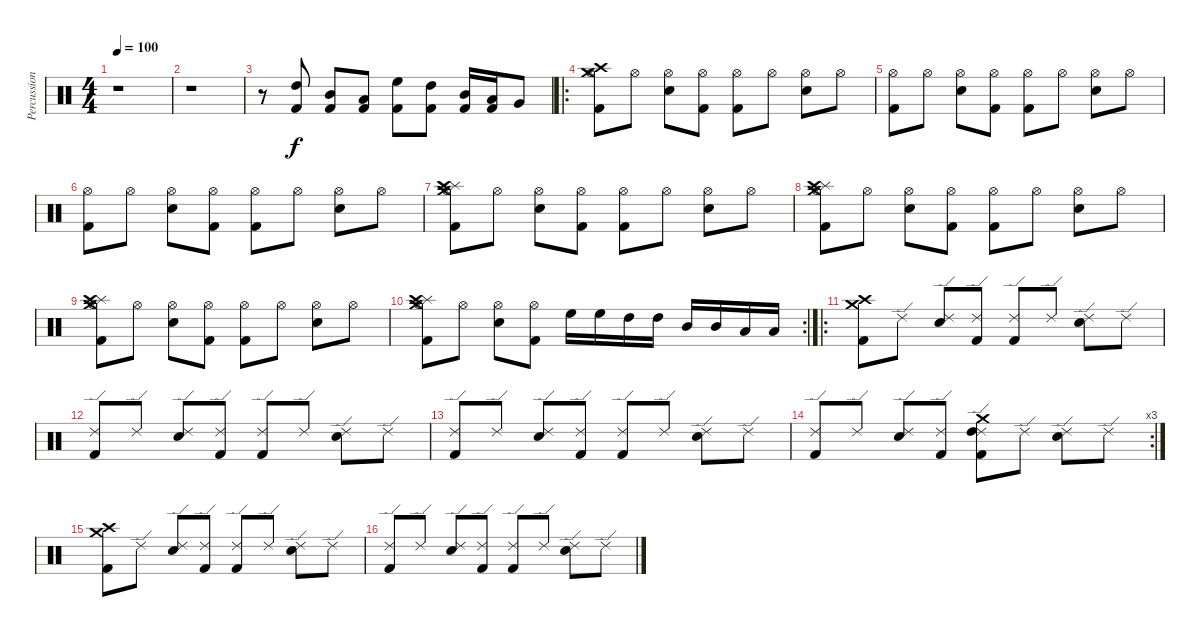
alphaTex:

\track ("Percussion" "Percussion") {instrument percussion}
\staff {score}
\articulation defaults
\ts (4 4)
\tempo 100
\clef neutral
\ks c
r.1{dy f} |
r.1 |
r.8 ("High Tom (hit)" "Kick (hit) 2").8 ("Mid Tom (hit)" "Kick (hit) 2").8 ("Low Tom (hit)" "Kick (hit) 2").8 ("High Floor Tom (hit)" "Kick (hit) 2").8 ("High Tom (hit)" "Kick (hit) 2").8 ("Mid Tom (hit)" "Kick (hit) 2").16 ("Low Tom (hit)" "Kick (hit) 2").16 "Very Low Tom (hit)".8 |
\ro
("Crash high (hit)" "Crash medium (hit)" "Kick (hit) 2" "Hi-Hat (open)").8 "Hi-Hat (open)".8 ("Hi-Hat (open)" "Electric Snare (hit)").8 ("Hi-Hat (open)" "Kick (hit) 2").8 ("Hi-Hat (open)" "Kick (hit) 2").8 "Hi-Hat (open)".8 ("Hi-Hat (open)" "Electric Snare (hit)").8 "Hi-Hat (open)".8 |
("Kick (hit) 2" "Hi-Hat (open)").8 "Hi-Hat (open)".8 ("Hi-Hat (open)" "Electric Snare (hit)").8 ("Hi-Hat (open)" "Kick (hit) 2").8 ("Hi-Hat (open)" "Kick (hit) 2").8 "Hi-Hat (open)".8 ("Hi-Hat (open)" "Electric Snare (hit)").8 "Hi-Hat (open)".8 |
("Kick (hit) 2" "Hi-Hat (open)").8 "Hi-Hat (open)".8 ("Hi-Hat (open)" "Electric Snare (hit)").8 ("Hi-Hat (open)" "Kick (hit) 2").8 ("Hi-Hat (open)" "Kick (hit) 2").8 "Hi-Hat (open)".8 ("Hi-Hat (open)" "Electric Snare (hit)").8 "Hi-Hat (open)".8 |
("Splash (hit)" "Crash high (hit)" "Crash medium (hit)" "Hi-Hat (open)" "Kick (hit) 2").8 "Hi-Hat (open)".8 ("Hi-Hat (open)" "Electric Snare (hit)").8 ("Hi-Hat (open)" "Kick (hit) 2").8 ("Hi-Hat (open)" "Kick (hit) 2").8 "Hi-Hat (open)".8 ("Hi-Hat (open)" "Electric Snare (hit)").8 "Hi-Hat (open)".8 |
("Splash (hit)" "Crash high (hit)" "Crash medium (hit)" "Hi-Hat (open)" "Kick (hit) 2").8 "Hi-Hat (open)".8 ("Hi-Hat (open)" "Electric Snare (hit)").8 ("Hi-Hat (open)" "Kick (hit) 2").8 ("Hi-Hat (open)" "Kick (hit) 2").8 "Hi-Hat (open)".8 ("Hi-Hat (open)" "Electric Snare (hit)").8 "Hi-Hat (open)".8 |
("Splash (hit)" "Crash high (hit)" "Crash medium (hit)" "Hi-Hat (open)" "Kick (hit) 2").8 "Hi-Hat (open)".8 ("Hi-Hat (open)" "Electric Snare (hit)").8 ("Hi-Hat (open)" "Kick (hit) 2").8 ("Hi-Hat (open)" "Kick (hit) 2").8 "Hi-Hat (open)".8 ("Hi-Hat (open)" "Electric Snare (hit)").8 "Hi-Hat (open)".8 |
\rc 2
("Splash (hit)" "Crash high (hit)" "Crash medium (hit)" "Hi-Hat (open)" "Kick (hit) 2").8 "Hi-Hat (open)".8 ("Hi-Hat (open)" "Electric Snare (hit)").8 ("Hi-Hat (open)" "Kick (hit) 2").8 "High Floor Tom (hit)".16 "High Floor Tom (hit)".16 "High Tom (hit)".16 "High Tom (hit)".16 "Mid Tom (hit)".16 "Mid Tom (hit)".16 "Low Tom (hit)".16 "Low Tom (hit)".16 |
\ro
("Crash high (hit)" "Crash medium (hit)" "Kick (hit) 2").8 "Ride (edge) 2".8 ("Ride (edge) 2" "Electric Snare (hit)").8 ("Ride (edge) 2" "Kick (hit) 2").8 ("Ride (edge) 2" "Kick (hit) 2").8 "Ride (edge) 2".8 ("Ride (edge) 2" "Electric Snare (hit)").8 "Ride (edge) 2".8 |
("Ride (edge) 2" "Kick (hit) 2").8 "Ride (edge) 2".8 ("Ride (edge) 2" "Electric Snare (hit)").8 ("Ride (edge) 2" "Kick (hit) 2").8 ("Ride (edge) 2" "Kick (hit) 2").8 "Ride (edge) 2".8 ("Ride (edge) 2" "Electric Snare (hit)").8 "Ride (edge) 2".8 |
("Ride (edge) 2" "Kick (hit) 2").8 "Ride (edge) 2".8 ("Ride (edge) 2" "Electric Snare (hit)").8 ("Ride (edge) 2" "Kick (hit) 2").8 ("Ride (edge) 2" "Kick (hit) 2").8 "Ride (edge) 2".8 ("Ride (edge) 2" "Electric Snare (hit)").8 "Ride (edge) 2".8 |
\rc 3
("Ride (edge) 2" "Kick (hit) 2").8 "Ride (edge) 2".8 ("Ride (edge) 2" "Electric Snare (hit)").8 ("Ride (edge) 2" "Kick (hit) 2").8 ("Ride (edge) 2" "Kick (hit) 2" "Crash medium (hit)" "High Tom (hit)").8 "Ride (edge) 2".8 ("Ride (edge) 2" "Electric Snare (hit)").8 "Ride (edge) 2".8 |
("Crash high (hit)" "Crash medium (hit)" "Kick (hit) 2").8 "Ride (edge) 2".8 ("Ride (edge) 2" "Electric Snare (hit)").8 ("Ride (edge) 2" "Kick (hit) 2").8 ("Ride (edge) 2" "Kick (hit) 2").8 "Ride (edge) 2".8 ("Ride (edge) 2" "Electric Snare (hit)").8 "Ride (edge) 2".8 |
("Ride (edge) 2" "Kick (hit) 2").8 "Ride (edge) 2".8 ("Ride (edge) 2" "Electric Snare (hit)").8 ("Ride (edge) 2" "Kick (hit) 2").8 ("Ride (edge) 2" "Kick (hit) 2").8 "Ride (edge) 2".8 ("Ride (edge) 2" "Electric Snare (hit)").8 "Ride (edge) 2".8
